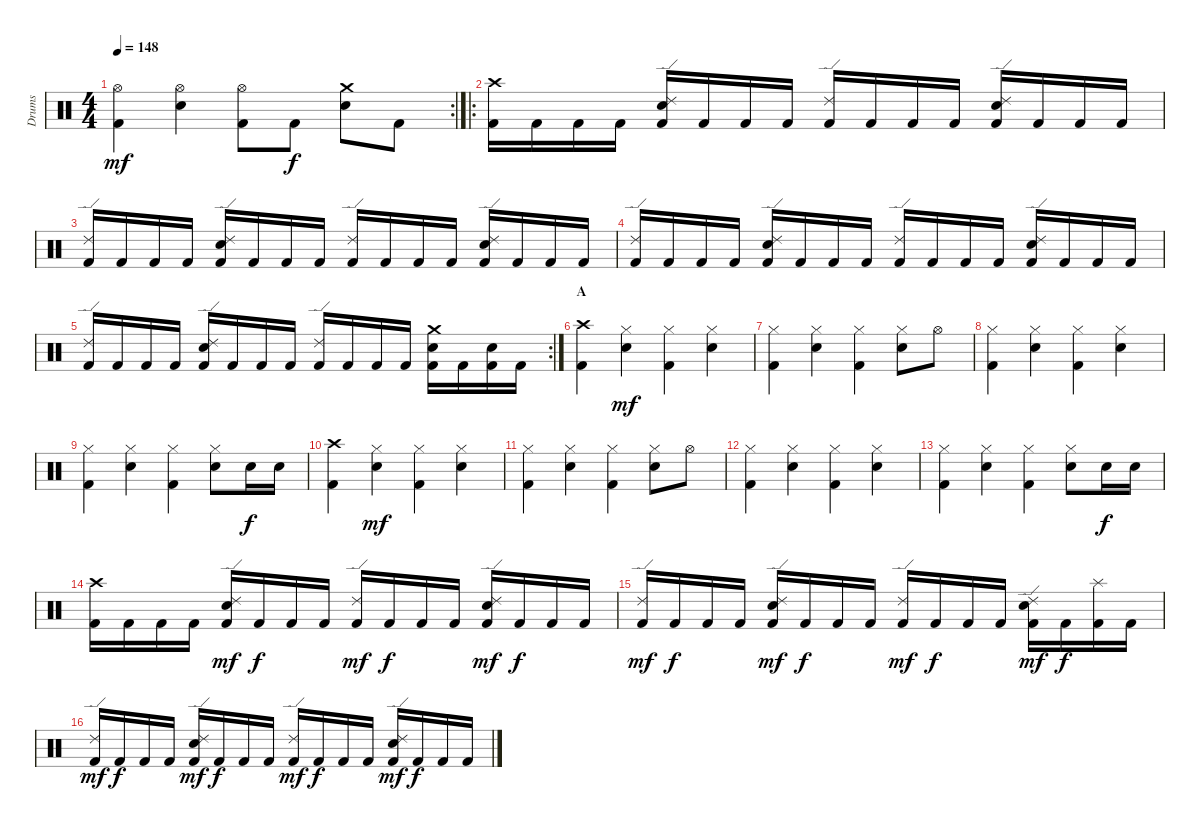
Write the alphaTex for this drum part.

\track ("Drums" "Drums") {instrument percussion}
\staff {score}
\articulation defaults
\rc 2
\ts (4 4)
\tempo 148
\clef neutral
\ks c
("Hi-Hat (open)" "Kick (hit) 2").4{dy mf} ("Hi-Hat (open)" "Snare (hit) 2").4 ("Hi-Hat (open)" "Kick (hit) 2").8 "Kick (hit) 2".8{dy f} ("Crash medium (hit)" "Snare (hit) 2").8 "Kick (hit) 2".8 |
\ro
("Crash high (hit)" "Kick (hit) 2").16 "Kick (hit) 2".16 "Kick (hit) 2".16 "Kick (hit) 2".16 ("Ride (edge) 2" "Snare (hit) 2" "Kick (hit) 2").16 "Kick (hit) 2".16 "Kick (hit) 2".16 "Kick (hit) 2".16 ("Ride (edge) 2" "Kick (hit) 2").16 "Kick (hit) 2".16 "Kick (hit) 2".16 "Kick (hit) 2".16 ("Ride (edge) 2" "Snare (hit) 2" "Kick (hit) 2").16 "Kick (hit) 2".16 "Kick (hit) 2".16 "Kick (hit) 2".16 |
("Ride (edge) 2" "Kick (hit) 2").16 "Kick (hit) 2".16 "Kick (hit) 2".16 "Kick (hit) 2".16 ("Ride (edge) 2" "Snare (hit) 2" "Kick (hit) 2").16 "Kick (hit) 2".16 "Kick (hit) 2".16 "Kick (hit) 2".16 ("Ride (edge) 2" "Kick (hit) 2").16 "Kick (hit) 2".16 "Kick (hit) 2".16 "Kick (hit) 2".16 ("Ride (edge) 2" "Snare (hit) 2" "Kick (hit) 2").16 "Kick (hit) 2".16 "Kick (hit) 2".16 "Kick (hit) 2".16 |
("Ride (edge) 2" "Kick (hit) 2").16 "Kick (hit) 2".16 "Kick (hit) 2".16 "Kick (hit) 2".16 ("Ride (edge) 2" "Snare (hit) 2" "Kick (hit) 2").16 "Kick (hit) 2".16 "Kick (hit) 2".16 "Kick (hit) 2".16 ("Ride (edge) 2" "Kick (hit) 2").16 "Kick (hit) 2".16 "Kick (hit) 2".16 "Kick (hit) 2".16 ("Ride (edge) 2" "Snare (hit) 2" "Kick (hit) 2").16 "Kick (hit) 2".16 "Kick (hit) 2".16 "Kick (hit) 2".16 |
\rc 2
("Ride (edge) 2" "Kick (hit) 2").16 "Kick (hit) 2".16 "Kick (hit) 2".16 "Kick (hit) 2".16 ("Ride (edge) 2" "Snare (hit) 2" "Kick (hit) 2").16 "Kick (hit) 2".16 "Kick (hit) 2".16 "Kick (hit) 2".16 ("Ride (edge) 2" "Kick (hit) 2").16 "Kick (hit) 2".16 "Kick (hit) 2".16 "Kick (hit) 2".16 ("Crash medium (hit)" "Snare (hit) 2" "Kick (hit) 2").16 "Kick (hit) 2".16 ("Snare (hit) 2" "Kick (hit) 2").16 "Kick (hit) 2".16 |
\section ("" "A")
("Crash high (hit)" "Kick (hit) 2").4 ("Hi-Hat (closed)" "Snare (hit) 2").4{dy mf} ("Hi-Hat (closed)" "Kick (hit) 2").4 ("Hi-Hat (closed)" "Snare (hit) 2").4 |
("Hi-Hat (closed)" "Kick (hit) 2").4 ("Hi-Hat (closed)" "Snare (hit) 2").4 ("Hi-Hat (closed)" "Kick (hit) 2").4 ("Hi-Hat (closed)" "Snare (hit) 2").8 "Hi-Hat (open)".8 |
("Hi-Hat (closed)" "Kick (hit) 2").4 ("Hi-Hat (closed)" "Snare (hit) 2").4 ("Hi-Hat (closed)" "Kick (hit) 2").4 ("Hi-Hat (closed)" "Snare (hit) 2").4 |
("Hi-Hat (closed)" "Kick (hit) 2").4 ("Hi-Hat (closed)" "Snare (hit) 2").4 ("Hi-Hat (closed)" "Kick (hit) 2").4 ("Hi-Hat (closed)" "Snare (hit) 2").8 "Snare (hit) 2".16{dy f} "Snare (hit) 2".16 |
("Crash high (hit)" "Kick (hit) 2").4 ("Hi-Hat (closed)" "Snare (hit) 2").4{dy mf} ("Hi-Hat (closed)" "Kick (hit) 2").4 ("Hi-Hat (closed)" "Snare (hit) 2").4 |
("Hi-Hat (closed)" "Kick (hit) 2").4 ("Hi-Hat (closed)" "Snare (hit) 2").4 ("Hi-Hat (closed)" "Kick (hit) 2").4 ("Hi-Hat (closed)" "Snare (hit) 2").8 "Hi-Hat (open)".8 |
("Hi-Hat (closed)" "Kick (hit) 2").4 ("Hi-Hat (closed)" "Snare (hit) 2").4 ("Hi-Hat (closed)" "Kick (hit) 2").4 ("Hi-Hat (closed)" "Snare (hit) 2").4 |
("Hi-Hat (closed)" "Kick (hit) 2").4 ("Hi-Hat (closed)" "Snare (hit) 2").4 ("Hi-Hat (closed)" "Kick (hit) 2").4 ("Hi-Hat (closed)" "Snare (hit) 2").8 "Snare (hit) 2".16{dy f} "Snare (hit) 2".16 |
("Crash high (hit)" "Kick (hit) 2").16 "Kick (hit) 2".16 "Kick (hit) 2".16 "Kick (hit) 2".16 ("Ride (edge) 2" "Snare (hit) 2" "Kick (hit) 2").16{dy mf} "Kick (hit) 2".16{dy f} "Kick (hit) 2".16 "Kick (hit) 2".16 ("Ride (edge) 2" "Kick (hit) 2").16{dy mf} "Kick (hit) 2".16{dy f} "Kick (hit) 2".16 "Kick (hit) 2".16 ("Ride (edge) 2" "Snare (hit) 2" "Kick (hit) 2").16{dy mf} "Kick (hit) 2".16{dy f} "Kick (hit) 2".16 "Kick (hit) 2".16 |
("Ride (edge) 2" "Kick (hit) 2").16{dy mf} "Kick (hit) 2".16{dy f} "Kick (hit) 2".16 "Kick (hit) 2".16 ("Ride (edge) 2" "Snare (hit) 2" "Kick (hit) 2").16{dy mf} "Kick (hit) 2".16{dy f} "Kick (hit) 2".16 "Kick (hit) 2".16 ("Ride (edge) 2" "Kick (hit) 2").16{dy mf} "Kick (hit) 2".16{dy f} "Kick (hit) 2".16 "Kick (hit) 2".16 ("Ride (edge) 2" "Snare (hit) 2" "Kick (hit) 2").16{dy mf} "Kick (hit) 2".16{dy f} ("Splash (hit)" "Kick (hit) 2").16 "Kick (hit) 2".16 |
("Ride (edge) 2" "Kick (hit) 2").16{dy mf} "Kick (hit) 2".16{dy f} "Kick (hit) 2".16 "Kick (hit) 2".16 ("Ride (edge) 2" "Snare (hit) 2" "Kick (hit) 2").16{dy mf} "Kick (hit) 2".16{dy f} "Kick (hit) 2".16 "Kick (hit) 2".16 ("Ride (edge) 2" "Kick (hit) 2").16{dy mf} "Kick (hit) 2".16{dy f} "Kick (hit) 2".16 "Kick (hit) 2".16 ("Ride (edge) 2" "Snare (hit) 2" "Kick (hit) 2").16{dy mf} "Kick (hit) 2".16{dy f} "Kick (hit) 2".16 "Kick (hit) 2".16
